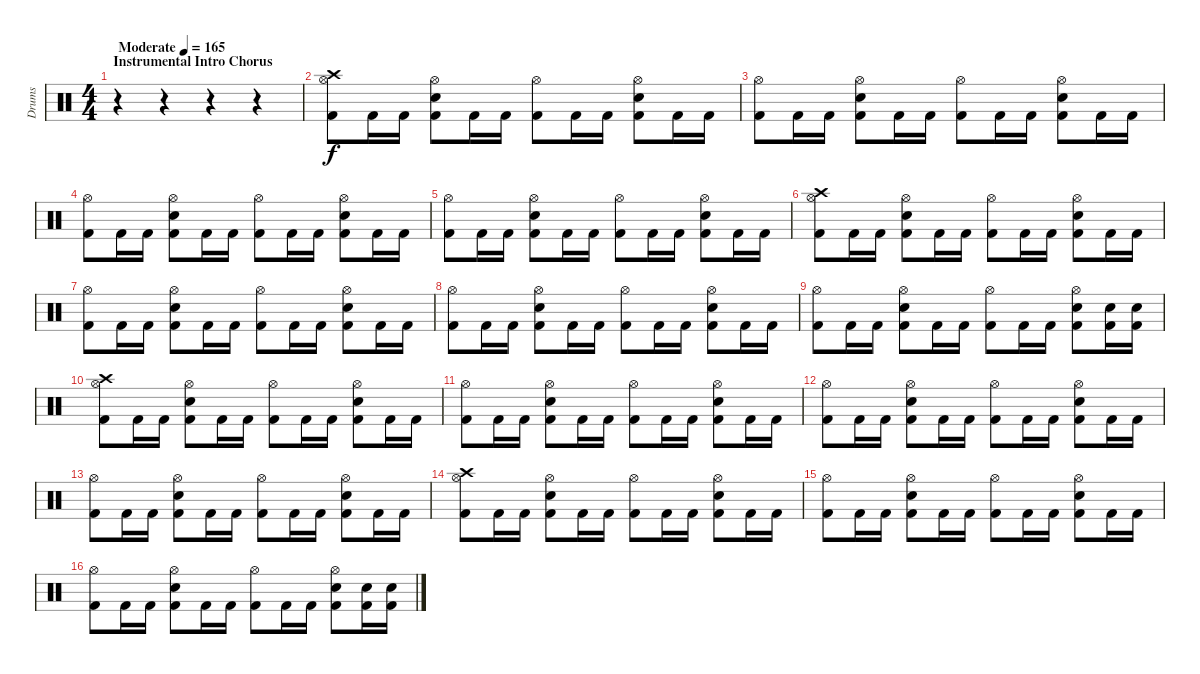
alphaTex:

\track ("Drums" "Drums") {instrument percussion}
\staff {score}
\articulation defaults
\ts (4 4)
\section ("" "Instrumental Intro Chorus")
\tempo (165 "Moderate")
\clef neutral
\ks c
r.4{dy f} r.4 r.4 r.4 |
("Crash high (hit)" "Hi-Hat (open)" "Kick (hit) 2").8 "Kick (hit) 2".16 "Kick (hit) 2".16 ("Hi-Hat (open)" "Snare (hit) 2" "Kick (hit) 2").8 "Kick (hit) 2".16 "Kick (hit) 2".16 ("Hi-Hat (open)" "Kick (hit) 2").8 "Kick (hit) 2".16 "Kick (hit) 2".16 ("Hi-Hat (open)" "Snare (hit) 2" "Kick (hit) 2").8 "Kick (hit) 2".16 "Kick (hit) 2".16 |
("Hi-Hat (open)" "Kick (hit) 2").8 "Kick (hit) 2".16 "Kick (hit) 2".16 ("Hi-Hat (open)" "Snare (hit) 2" "Kick (hit) 2").8 "Kick (hit) 2".16 "Kick (hit) 2".16 ("Hi-Hat (open)" "Kick (hit) 2").8 "Kick (hit) 2".16 "Kick (hit) 2".16 ("Hi-Hat (open)" "Snare (hit) 2" "Kick (hit) 2").8 "Kick (hit) 2".16 "Kick (hit) 2".16 |
("Hi-Hat (open)" "Kick (hit) 2").8 "Kick (hit) 2".16 "Kick (hit) 2".16 ("Hi-Hat (open)" "Snare (hit) 2" "Kick (hit) 2").8 "Kick (hit) 2".16 "Kick (hit) 2".16 ("Hi-Hat (open)" "Kick (hit) 2").8 "Kick (hit) 2".16 "Kick (hit) 2".16 ("Hi-Hat (open)" "Snare (hit) 2" "Kick (hit) 2").8 "Kick (hit) 2".16 "Kick (hit) 2".16 |
("Hi-Hat (open)" "Kick (hit) 2").8 "Kick (hit) 2".16 "Kick (hit) 2".16 ("Hi-Hat (open)" "Snare (hit) 2" "Kick (hit) 2").8 "Kick (hit) 2".16 "Kick (hit) 2".16 ("Hi-Hat (open)" "Kick (hit) 2").8 "Kick (hit) 2".16 "Kick (hit) 2".16 ("Hi-Hat (open)" "Snare (hit) 2" "Kick (hit) 2").8 "Kick (hit) 2".16 "Kick (hit) 2".16 |
("Crash high (hit)" "Hi-Hat (open)" "Kick (hit) 2").8 "Kick (hit) 2".16 "Kick (hit) 2".16 ("Hi-Hat (open)" "Snare (hit) 2" "Kick (hit) 2").8 "Kick (hit) 2".16 "Kick (hit) 2".16 ("Hi-Hat (open)" "Kick (hit) 2").8 "Kick (hit) 2".16 "Kick (hit) 2".16 ("Hi-Hat (open)" "Snare (hit) 2" "Kick (hit) 2").8 "Kick (hit) 2".16 "Kick (hit) 2".16 |
("Hi-Hat (open)" "Kick (hit) 2").8 "Kick (hit) 2".16 "Kick (hit) 2".16 ("Hi-Hat (open)" "Snare (hit) 2" "Kick (hit) 2").8 "Kick (hit) 2".16 "Kick (hit) 2".16 ("Hi-Hat (open)" "Kick (hit) 2").8 "Kick (hit) 2".16 "Kick (hit) 2".16 ("Hi-Hat (open)" "Snare (hit) 2" "Kick (hit) 2").8 "Kick (hit) 2".16 "Kick (hit) 2".16 |
("Hi-Hat (open)" "Kick (hit) 2").8 "Kick (hit) 2".16 "Kick (hit) 2".16 ("Hi-Hat (open)" "Snare (hit) 2" "Kick (hit) 2").8 "Kick (hit) 2".16 "Kick (hit) 2".16 ("Hi-Hat (open)" "Kick (hit) 2").8 "Kick (hit) 2".16 "Kick (hit) 2".16 ("Hi-Hat (open)" "Snare (hit) 2" "Kick (hit) 2").8 "Kick (hit) 2".16 "Kick (hit) 2".16 |
("Hi-Hat (open)" "Kick (hit) 2").8 "Kick (hit) 2".16 "Kick (hit) 2".16 ("Hi-Hat (open)" "Snare (hit) 2" "Kick (hit) 2").8 "Kick (hit) 2".16 "Kick (hit) 2".16 ("Hi-Hat (open)" "Kick (hit) 2").8 "Kick (hit) 2".16 "Kick (hit) 2".16 ("Hi-Hat (open)" "Snare (hit) 2" "Kick (hit) 2").8 ("Snare (hit) 2" "Kick (hit) 2").16 ("Snare (hit) 2" "Kick (hit) 2").16 |
("Crash high (hit)" "Hi-Hat (open)" "Kick (hit) 2").8 "Kick (hit) 2".16 "Kick (hit) 2".16 ("Hi-Hat (open)" "Snare (hit) 2" "Kick (hit) 2").8 "Kick (hit) 2".16 "Kick (hit) 2".16 ("Hi-Hat (open)" "Kick (hit) 2").8 "Kick (hit) 2".16 "Kick (hit) 2".16 ("Hi-Hat (open)" "Snare (hit) 2" "Kick (hit) 2").8 "Kick (hit) 2".16 "Kick (hit) 2".16 |
("Hi-Hat (open)" "Kick (hit) 2").8 "Kick (hit) 2".16 "Kick (hit) 2".16 ("Hi-Hat (open)" "Snare (hit) 2" "Kick (hit) 2").8 "Kick (hit) 2".16 "Kick (hit) 2".16 ("Hi-Hat (open)" "Kick (hit) 2").8 "Kick (hit) 2".16 "Kick (hit) 2".16 ("Hi-Hat (open)" "Snare (hit) 2" "Kick (hit) 2").8 "Kick (hit) 2".16 "Kick (hit) 2".16 |
("Hi-Hat (open)" "Kick (hit) 2").8 "Kick (hit) 2".16 "Kick (hit) 2".16 ("Hi-Hat (open)" "Snare (hit) 2" "Kick (hit) 2").8 "Kick (hit) 2".16 "Kick (hit) 2".16 ("Hi-Hat (open)" "Kick (hit) 2").8 "Kick (hit) 2".16 "Kick (hit) 2".16 ("Hi-Hat (open)" "Snare (hit) 2" "Kick (hit) 2").8 "Kick (hit) 2".16 "Kick (hit) 2".16 |
("Hi-Hat (open)" "Kick (hit) 2").8 "Kick (hit) 2".16 "Kick (hit) 2".16 ("Hi-Hat (open)" "Snare (hit) 2" "Kick (hit) 2").8 "Kick (hit) 2".16 "Kick (hit) 2".16 ("Hi-Hat (open)" "Kick (hit) 2").8 "Kick (hit) 2".16 "Kick (hit) 2".16 ("Hi-Hat (open)" "Snare (hit) 2" "Kick (hit) 2").8 "Kick (hit) 2".16 "Kick (hit) 2".16 |
("Crash high (hit)" "Hi-Hat (open)" "Kick (hit) 2").8 "Kick (hit) 2".16 "Kick (hit) 2".16 ("Hi-Hat (open)" "Snare (hit) 2" "Kick (hit) 2").8 "Kick (hit) 2".16 "Kick (hit) 2".16 ("Hi-Hat (open)" "Kick (hit) 2").8 "Kick (hit) 2".16 "Kick (hit) 2".16 ("Hi-Hat (open)" "Snare (hit) 2" "Kick (hit) 2").8 "Kick (hit) 2".16 "Kick (hit) 2".16 |
("Hi-Hat (open)" "Kick (hit) 2").8 "Kick (hit) 2".16 "Kick (hit) 2".16 ("Hi-Hat (open)" "Snare (hit) 2" "Kick (hit) 2").8 "Kick (hit) 2".16 "Kick (hit) 2".16 ("Hi-Hat (open)" "Kick (hit) 2").8 "Kick (hit) 2".16 "Kick (hit) 2".16 ("Hi-Hat (open)" "Snare (hit) 2" "Kick (hit) 2").8 "Kick (hit) 2".16 "Kick (hit) 2".16 |
("Hi-Hat (open)" "Kick (hit) 2").8 "Kick (hit) 2".16 "Kick (hit) 2".16 ("Hi-Hat (open)" "Snare (hit) 2" "Kick (hit) 2").8 "Kick (hit) 2".16 "Kick (hit) 2".16 ("Hi-Hat (open)" "Kick (hit) 2").8 "Kick (hit) 2".16 "Kick (hit) 2".16 ("Hi-Hat (open)" "Snare (hit) 2" "Kick (hit) 2").8 ("Snare (hit) 2" "Kick (hit) 2").16 ("Snare (hit) 2" "Kick (hit) 2").16
